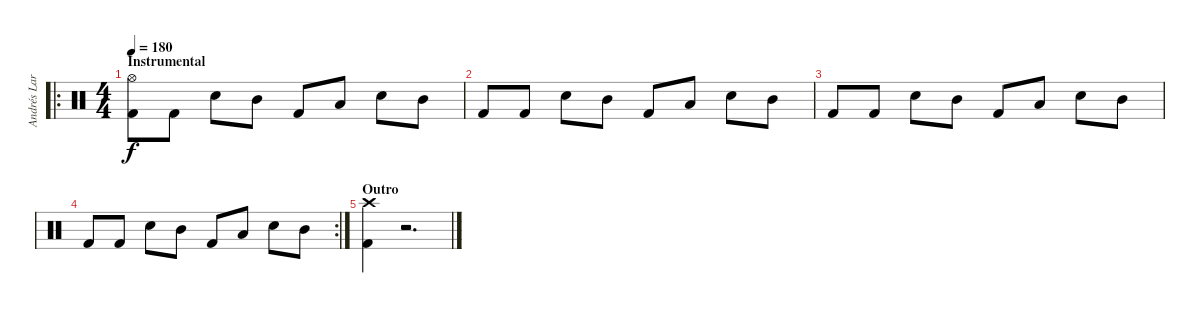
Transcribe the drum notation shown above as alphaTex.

\track ("Andrés Larraín (batería)" "Andrés Lar") {instrument percussion}
\staff {score}
\articulation defaults
\ro
\ts (4 4)
\section ("" "Instrumental")
\tempo 180
\clef neutral
\ks c
("Hi-Hat (open)" "Kick (hit) 2").8{dy f} "Kick (hit) 2".8 "Electric Snare (hit)".8 "Mid Tom (hit)".8 "Kick (hit) 2".8 "Low Floor Tom (hit)".8 "Electric Snare (hit)".8 "Mid Tom (hit)".8 |
"Kick (hit) 2".8 "Kick (hit) 2".8 "Electric Snare (hit)".8 "Mid Tom (hit)".8 "Kick (hit) 2".8 "Low Floor Tom (hit)".8 "Electric Snare (hit)".8 "Mid Tom (hit)".8 |
"Kick (hit) 2".8 "Kick (hit) 2".8 "Electric Snare (hit)".8 "Mid Tom (hit)".8 "Kick (hit) 2".8 "Low Floor Tom (hit)".8 "Electric Snare (hit)".8 "Mid Tom (hit)".8 |
\rc 2 "Kick (hit) 2".8 "Kick (hit) 2".8 "Electric Snare (hit)".8 "Mid Tom (hit)".8 "Kick (hit) 2".8 "Low Floor Tom (hit)".8 "Electric Snare (hit)".8 "Mid Tom (hit)".8
|
\section ("" "Outro")
("Crash high (hit)" "Kick (hit) 2").4 r.2{d}
